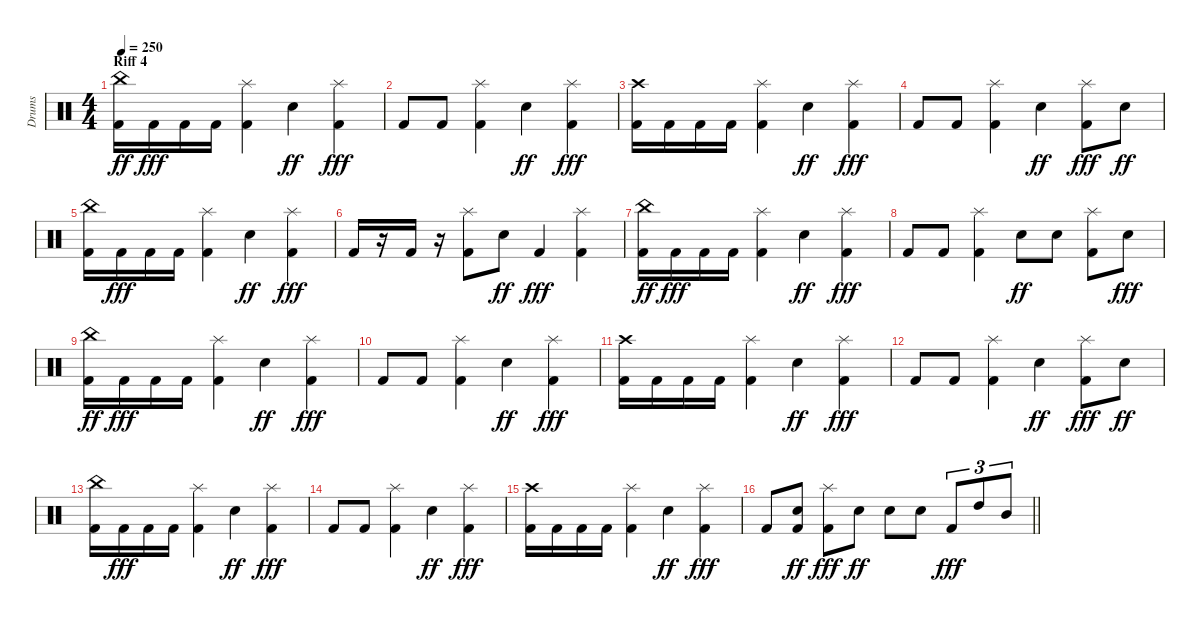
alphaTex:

\track ("Drums" "Drums") {instrument percussion}
\staff {score}
\articulation defaults
\ts (4 4)
\section ("" "Riff 4")
\tempo 250
\clef neutral
\ks c
("Kick (hit) 2" "China (hit)").16{dy ff} "Kick (hit) 2".16{dy fff} "Kick (hit) 2".16 "Kick (hit) 2".16 ("Kick (hit) 2" "Splash (hit)").4 "Snare (hit) 2".4{dy ff} ("Kick (hit) 2" "Splash (hit)").4{dy fff} |
"Kick (hit) 2".8 "Kick (hit) 2".8 ("Kick (hit) 2" "Splash (hit)").4 "Snare (hit) 2".4{dy ff} ("Kick (hit) 2" "Splash (hit)").4{dy fff} |
("Kick (hit) 2" "Crash high (hit)").16 "Kick (hit) 2".16 "Kick (hit) 2".16 "Kick (hit) 2".16 ("Kick (hit) 2" "Splash (hit)").4 "Snare (hit) 2".4{dy ff} ("Kick (hit) 2" "Splash (hit)").4{dy fff} |
"Kick (hit) 2".8 "Kick (hit) 2".8 ("Kick (hit) 2" "Splash (hit)").4 "Snare (hit) 2".4{dy ff} ("Kick (hit) 2" "Splash (hit)").8{dy fff} "Snare (hit) 2".8{dy ff} |
("Kick (hit) 2" "China (hit)").16 "Kick (hit) 2".16{dy fff} "Kick (hit) 2".16 "Kick (hit) 2".16 ("Kick (hit) 2" "Splash (hit)").4 "Snare (hit) 2".4{dy ff} ("Kick (hit) 2" "Splash (hit)").4{dy fff} |
"Kick (hit) 2".16 r.16 "Kick (hit) 2".16 r.16 ("Kick (hit) 2" "Splash (hit)").8 "Snare (hit) 2".8{dy ff} "Kick (hit) 2".4{dy fff} ("Kick (hit) 2" "Splash (hit)").4 |
("Kick (hit) 2" "China (hit)").16{dy ff} "Kick (hit) 2".16{dy fff} "Kick (hit) 2".16 "Kick (hit) 2".16 ("Kick (hit) 2" "Splash (hit)").4 "Snare (hit) 2".4{dy ff} ("Kick (hit) 2" "Splash (hit)").4{dy fff} |
"Kick (hit) 2".8 "Kick (hit) 2".8 ("Kick (hit) 2" "Splash (hit)").4 "Snare (hit) 2".8{dy ff} "Snare (hit) 2".8 ("Kick (hit) 2" "Splash (hit)").8 "Snare (hit) 2".8{dy fff} |
("Kick (hit) 2" "China (hit)").16{dy ff} "Kick (hit) 2".16{dy fff} "Kick (hit) 2".16 "Kick (hit) 2".16 ("Kick (hit) 2" "Splash (hit)").4 "Snare (hit) 2".4{dy ff} ("Kick (hit) 2" "Splash (hit)").4{dy fff} |
"Kick (hit) 2".8 "Kick (hit) 2".8 ("Kick (hit) 2" "Splash (hit)").4 "Snare (hit) 2".4{dy ff} ("Kick (hit) 2" "Splash (hit)").4{dy fff} |
("Kick (hit) 2" "Crash high (hit)").16 "Kick (hit) 2".16 "Kick (hit) 2".16 "Kick (hit) 2".16 ("Kick (hit) 2" "Splash (hit)").4 "Snare (hit) 2".4{dy ff} ("Kick (hit) 2" "Splash (hit)").4{dy fff} |
"Kick (hit) 2".8 "Kick (hit) 2".8 ("Kick (hit) 2" "Splash (hit)").4 "Snare (hit) 2".4{dy ff} ("Kick (hit) 2" "Splash (hit)").8{dy fff} "Snare (hit) 2".8{dy ff} |
("Kick (hit) 2" "China (hit)").16 "Kick (hit) 2".16{dy fff} "Kick (hit) 2".16 "Kick (hit) 2".16 ("Kick (hit) 2" "Splash (hit)").4 "Snare (hit) 2".4{dy ff} ("Kick (hit) 2" "Splash (hit)").4{dy fff} |
"Kick (hit) 2".8 "Kick (hit) 2".8 ("Kick (hit) 2" "Splash (hit)").4 "Snare (hit) 2".4{dy ff} ("Kick (hit) 2" "Splash (hit)").4{dy fff} |
("Kick (hit) 2" "Crash high (hit)").16 "Kick (hit) 2".16 "Kick (hit) 2".16 "Kick (hit) 2".16 ("Kick (hit) 2" "Splash (hit)").4 "Snare (hit) 2".4{dy ff} ("Kick (hit) 2" "Splash (hit)").4{dy fff} |
\barLineRight lightlight "Kick (hit) 2".8
("Kick (hit) 2" "Snare (hit) 2").8{dy ff} ("Kick (hit) 2" "Splash (hit)").8{dy fff} "Snare (hit) 2".8{dy ff} "Snare (hit) 2".8 "Snare (hit) 2".8 "Kick (hit) 2".8{tu (3 2) dy fff} "High Tom (hit)".8{tu (3 2)} "Mid Tom (hit)".8{tu (3 2)}
